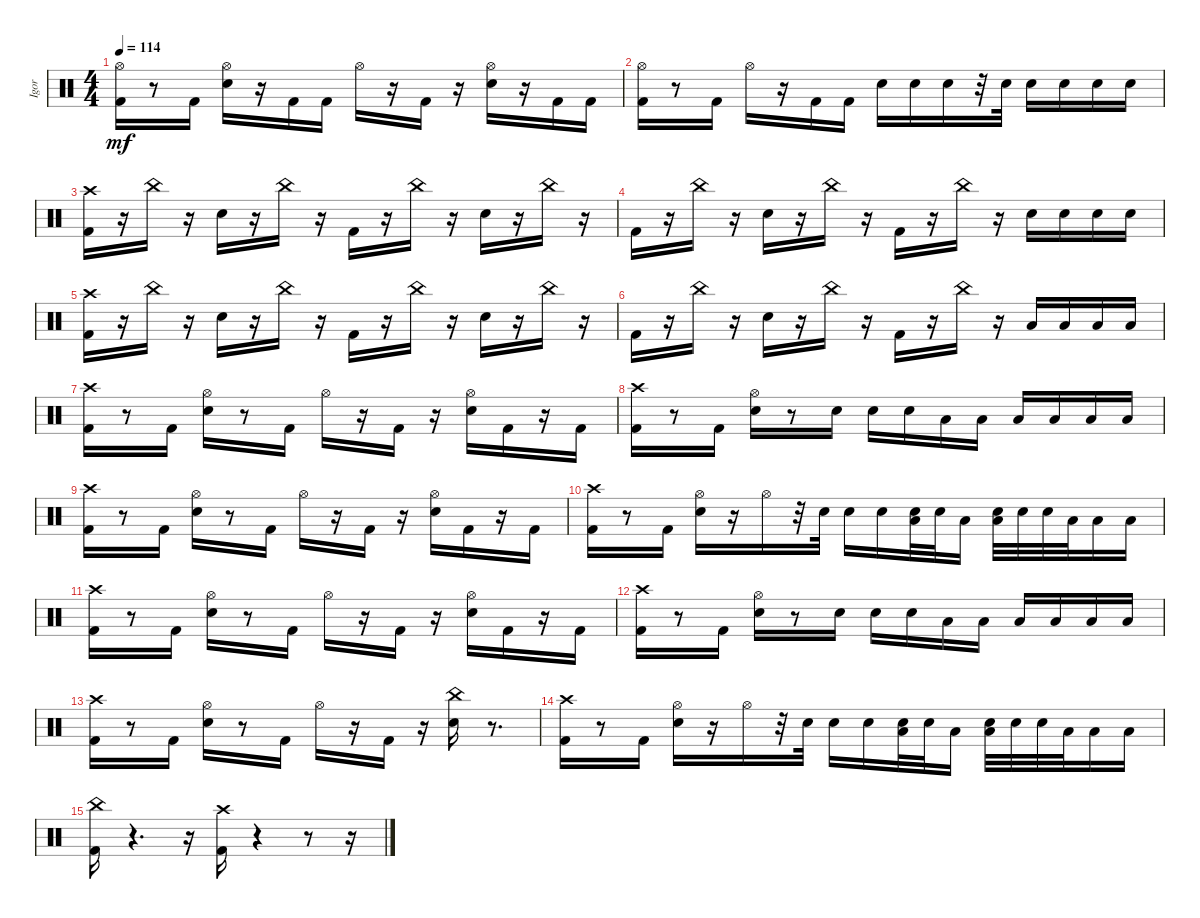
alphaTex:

\track ("Igor" "Igor") {instrument percussion}
\staff {score}
\articulation defaults
\ts (4 4)
\tempo 114
\clef neutral
\ks c
("Kick (hit) 2" "Hi-Hat (open)").16{dy mf} r.8 "Kick (hit) 2".16 ("Snare (hit) 2" "Hi-Hat (open)").16 r.16 "Kick (hit) 2".16 "Kick (hit) 2".16 "Hi-Hat (open)".16 r.16 "Kick (hit) 2".16 r.16 ("Snare (hit) 2" "Hi-Hat (open)").16 r.16 "Kick (hit) 2".16 "Kick (hit) 2".16 |
("Kick (hit) 2" "Hi-Hat (open)").16 r.8 "Kick (hit) 2".16 "Hi-Hat (open)".16 r.16 "Kick (hit) 2".16 "Kick (hit) 2".16 "Snare (hit) 2".16 "Snare (hit) 2".16 "Snare (hit) 2".16 r.32 "Snare (hit) 2".32 "Snare (hit) 2".16 "Snare (hit) 2".16 "Snare (hit) 2".16 "Snare (hit) 2".16 |
("Crash high (hit)" "Kick (hit) 2").16 r.16 "China (hit)".16 r.16 "Snare (hit) 2".16 r.16 "China (hit)".16 r.16 "Kick (hit) 2".16 r.16 "China (hit)".16 r.16 "Snare (hit) 2".16 r.16 "China (hit)".16 r.16 |
"Kick (hit) 2".16 r.16 "China (hit)".16 r.16 "Snare (hit) 2".16 r.16 "China (hit)".16 r.16 "Kick (hit) 2".16 r.16 "China (hit)".16 r.16 "Snare (hit) 2".16 "Snare (hit) 2".16 "Snare (hit) 2".16 "Snare (hit) 2".16 |
("Crash high (hit)" "Kick (hit) 2").16 r.16 "China (hit)".16 r.16 "Snare (hit) 2".16 r.16 "China (hit)".16 r.16 "Kick (hit) 2".16 r.16 "China (hit)".16 r.16 "Snare (hit) 2".16 r.16 "China (hit)".16 r.16 |
"Kick (hit) 2".16 r.16 "China (hit)".16 r.16 "Snare (hit) 2".16 r.16 "China (hit)".16 r.16 "Kick (hit) 2".16 r.16 "China (hit)".16 r.16 "Low Tom (hit)".16 "Low Tom (hit)".16 "Low Tom (hit)".16 "Low Tom (hit)".16 |
("Crash high (hit)" "Kick (hit) 2").16 r.8 "Kick (hit) 2".16 ("Snare (hit) 2" "Hi-Hat (open)").16 r.8 "Kick (hit) 2".16 "Hi-Hat (open)".16 r.16 "Kick (hit) 2".16 r.16 ("Hi-Hat (open)" "Snare (hit) 2").16 "Kick (hit) 2".16 r.16 "Kick (hit) 2".16 |
("Kick (hit) 2" "Crash high (hit)").16 r.8 "Kick (hit) 2".16 ("Snare (hit) 2" "Hi-Hat (open)").16 r.8 "Snare (hit) 2".16 "Snare (hit) 2".16 "Snare (hit) 2".16 "Low Tom (hit)".16 "Low Tom (hit)".16 "Low Tom (hit)".16 "Low Tom (hit)".16 "Low Floor Tom (hit)".16 "Low Floor Tom (hit)".16 |
("Crash high (hit)" "Kick (hit) 2").16 r.8 "Kick (hit) 2".16 ("Snare (hit) 2" "Hi-Hat (open)").16 r.8 "Kick (hit) 2".16 "Hi-Hat (open)".16 r.16 "Kick (hit) 2".16 r.16 ("Hi-Hat (open)" "Snare (hit) 2").16 "Kick (hit) 2".16 r.16 "Kick (hit) 2".16 |
("Kick (hit) 2" "Crash high (hit)").16 r.8 "Kick (hit) 2".16 ("Snare (hit) 2" "Hi-Hat (open)").16 r.16 "Hi-Hat (open)".16 r.32 "Snare (hit) 2".32 "Snare (hit) 2".16 "Snare (hit) 2".16 ("Snare (hit) 2" "Low Tom (hit)").32 "Snare (hit) 2".32 "Low Tom (hit)".16 ("Snare (hit) 2" "Low Tom (hit)").32 "Snare (hit) 2".32 "Snare (hit) 2".32 "Low Floor Tom (hit)".32 "Low Floor Tom (hit)".16 "Low Floor Tom (hit)".16 |
("Crash high (hit)" "Kick (hit) 2").16 r.8 "Kick (hit) 2".16 ("Snare (hit) 2" "Hi-Hat (open)").16 r.8 "Kick (hit) 2".16 "Hi-Hat (open)".16 r.16 "Kick (hit) 2".16 r.16 ("Hi-Hat (open)" "Snare (hit) 2").16 "Kick (hit) 2".16 r.16 "Kick (hit) 2".16 |
("Kick (hit) 2" "Crash high (hit)").16 r.8 "Kick (hit) 2".16 ("Snare (hit) 2" "Hi-Hat (open)").16 r.8 "Snare (hit) 2".16 "Snare (hit) 2".16 "Snare (hit) 2".16 "Low Tom (hit)".16 "Low Tom (hit)".16 "Low Tom (hit)".16 "Low Tom (hit)".16 "Low Floor Tom (hit)".16 "Low Floor Tom (hit)".16 |
("Crash high (hit)" "Kick (hit) 2").16 r.8 "Kick (hit) 2".16 ("Snare (hit) 2" "Hi-Hat (open)").16 r.8 "Kick (hit) 2".16 "Hi-Hat (open)".16 r.16 "Kick (hit) 2".16 r.16 ("Snare (hit) 2" "China (hit)").16 r.8{d} |
("Kick (hit) 2" "Crash high (hit)").16 r.8 "Kick (hit) 2".16 ("Snare (hit) 2" "Hi-Hat (open)").16 r.16 "Hi-Hat (open)".16 r.32 "Snare (hit) 2".32 "Snare (hit) 2".16 "Snare (hit) 2".16 ("Snare (hit) 2" "Low Tom (hit)").32 "Snare (hit) 2".32 "Low Tom (hit)".16 ("Snare (hit) 2" "Low Tom (hit)").32 "Snare (hit) 2".32 "Snare (hit) 2".32 "Low Floor Tom (hit)".32 "Low Floor Tom (hit)".16 "Low Floor Tom (hit)".16 |
("Kick (hit) 2" "China (hit)").16 r.4{d} r.16 ("Crash high (hit)" "Kick (hit) 2").16 r.4 r.8 r.16
